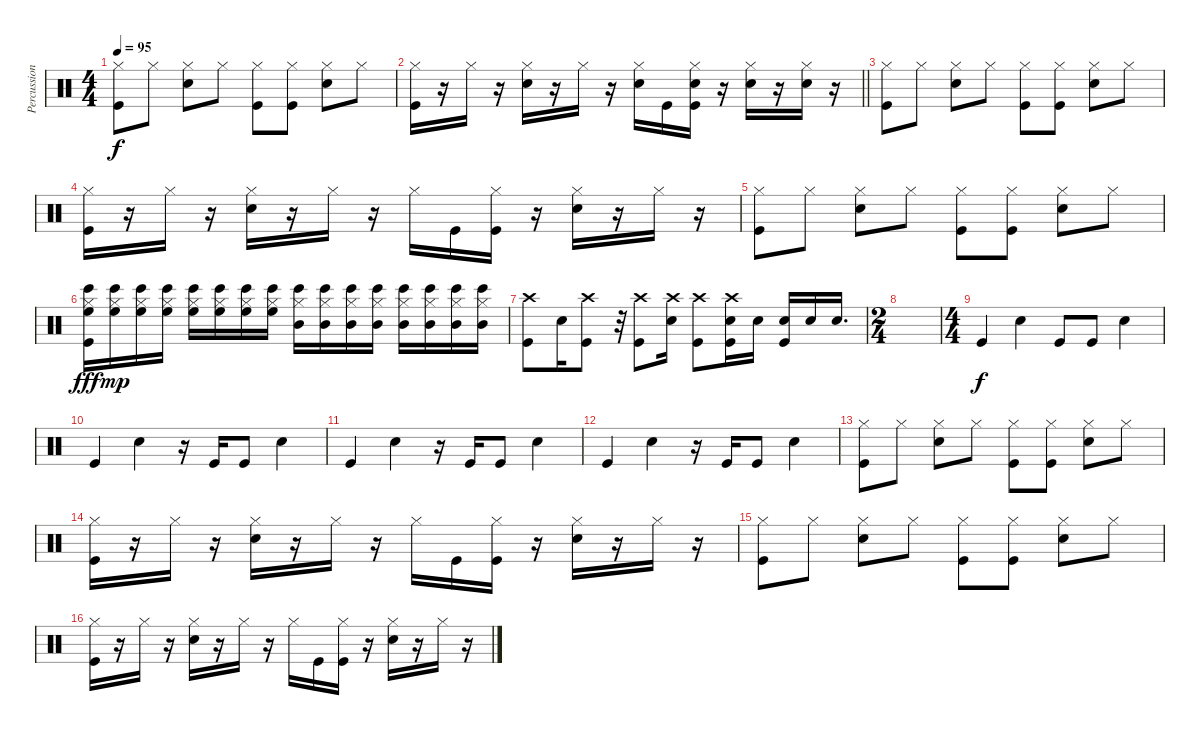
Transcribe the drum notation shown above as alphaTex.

\track ("Percussion" "Percussion") {instrument percussion}
\staff {score}
\articulation defaults
\ts (4 4)
\tempo 95
\clef neutral
\ks c
("Hi-Hat (closed)" "Kick (hit)").8{dy f} "Hi-Hat (closed)".8 ("Hi-Hat (closed)" "Hand Clap (hit)").8 "Hi-Hat (closed)".8 ("Hi-Hat (closed)" "Kick (hit)").8 ("Hi-Hat (closed)" "Kick (hit)").8 ("Hi-Hat (closed)" "Hand Clap (hit)").8 "Hi-Hat (closed)".8 |
\barLineRight lightlight
("Hi-Hat (closed)" "Kick (hit)").16 r.16 "Hi-Hat (closed)".16 r.16 ("Hi-Hat (closed)" "Hand Clap (hit)").16 r.16 "Hi-Hat (closed)".16 r.16 ("Hi-Hat (closed)" "Snare (hit) 2").16 "Kick (hit)".16 ("Hi-Hat (closed)" "Snare (hit) 2" "Kick (hit)").16 r.16 ("Hi-Hat (closed)" "Hand Clap (hit)").16 r.16 ("Hi-Hat (closed)" "Snare (hit) 2").16 r.16 |
("Hi-Hat (closed)" "Kick (hit)").8 "Hi-Hat (closed)".8 ("Hi-Hat (closed)" "Hand Clap (hit)").8 "Hi-Hat (closed)".8 ("Hi-Hat (closed)" "Kick (hit)").8 ("Hi-Hat (closed)" "Kick (hit)").8 ("Hi-Hat (closed)" "Hand Clap (hit)").8 "Hi-Hat (closed)".8 |
("Hi-Hat (closed)" "Kick (hit)").16 r.16 "Hi-Hat (closed)".16 r.16 ("Hi-Hat (closed)" "Hand Clap (hit)").16 r.16 "Hi-Hat (closed)".16 r.16 "Hi-Hat (closed)".16 "Kick (hit)".16 ("Hi-Hat (closed)" "Kick (hit)").16 r.16 ("Hi-Hat (closed)" "Hand Clap (hit)").16 r.16 "Hi-Hat (closed)".16 r.16 |
("Hi-Hat (closed)" "Kick (hit)").8 "Hi-Hat (closed)".8 ("Hi-Hat (closed)" "Hand Clap (hit)").8 "Hi-Hat (closed)".8 ("Hi-Hat (closed)" "Kick (hit)").8 ("Hi-Hat (closed)" "Kick (hit)").8 ("Hi-Hat (closed)" "Hand Clap (hit)").8 "Hi-Hat (closed)".8 |
("High Floor Tom (hit)" "Hi-Hat (closed)" "Bongo High (hit)" "Kick (hit)").16{dy fff} ("High Floor Tom (hit)" "Hi-Hat (closed)" "Bongo High (hit)").16{dy mp} ("High Floor Tom (hit)" "Hi-Hat (closed)" "Bongo High (hit)").16 ("High Floor Tom (hit)" "Hi-Hat (closed)" "Bongo High (hit)").16 ("High Floor Tom (hit)" "Hi-Hat (closed)" "Bongo High (hit)").16 ("High Floor Tom (hit)" "Hi-Hat (closed)" "Bongo High (hit)").16 ("High Floor Tom (hit)" "Hi-Hat (closed)" "Bongo High (hit)").16 ("High Floor Tom (hit)" "Hi-Hat (closed)" "Bongo High (hit)").16 ("Mid Tom (hit)" "Hi-Hat (closed)" "Bongo High (hit)").16 ("Mid Tom (hit)" "Hi-Hat (closed)" "Bongo High (hit)").16 ("Mid Tom (hit)" "Hi-Hat (closed)" "Bongo High (hit)").16 ("Mid Tom (hit)" "Hi-Hat (closed)" "Bongo High (hit)").16 ("Mid Tom (hit)" "Hi-Hat (closed)" "Bongo High (hit)").16 ("Mid Tom (hit)" "Hi-Hat (closed)" "Bongo High (hit)").16 ("Mid Tom (hit)" "Hi-Hat (closed)" "Bongo High (hit)").16 ("Mid Tom (hit)" "Hi-Hat (closed)" "Bongo High (hit)").16 |
("Crash high (hit)" "Kick (hit)").8 "Snare (hit) 2".16 ("Crash high (hit)" "Kick (hit)").8 r.32 ("Crash high (hit)" "Kick (hit)").8 ("Crash high (hit)" "Snare (hit) 2").16 ("Crash high (hit)" "Kick (hit)").8 ("Crash high (hit)" "Snare (hit) 2" "Kick (hit)").16 "Snare (hit) 2".16 ("Snare (hit) 2" "Kick (hit)").16 "Snare (hit) 2".16 "Snare (hit) 2".16{d} |
\ts (2 4)
|
\ts (4 4)
"Kick (hit)".4{dy f} "Hand Clap (hit)".4 "Kick (hit)".8 "Kick (hit)".8 "Hand Clap (hit)".4 |
"Kick (hit)".4 "Snare (hit) 2".4 r.16 "Kick (hit)".16 "Kick (hit)".8 "Snare (hit) 2".4 |
"Kick (hit)".4 "Snare (hit) 2".4 r.16 "Kick (hit)".16 "Kick (hit)".8 "Snare (hit) 2".4 |
"Kick (hit)".4 "Snare (hit) 2".4 r.16 "Kick (hit)".16 "Kick (hit)".8 "Snare (hit) 2".4 |
("Hi-Hat (closed)" "Kick (hit)").8 "Hi-Hat (closed)".8 ("Hi-Hat (closed)" "Hand Clap (hit)").8 "Hi-Hat (closed)".8 ("Hi-Hat (closed)" "Kick (hit)").8 ("Hi-Hat (closed)" "Kick (hit)").8 ("Hi-Hat (closed)" "Hand Clap (hit)").8 "Hi-Hat (closed)".8 |
("Hi-Hat (closed)" "Kick (hit)").16 r.16 "Hi-Hat (closed)".16 r.16 ("Hi-Hat (closed)" "Hand Clap (hit)").16 r.16 "Hi-Hat (closed)".16 r.16 "Hi-Hat (closed)".16 "Kick (hit)".16 ("Hi-Hat (closed)" "Kick (hit)").16 r.16 ("Hi-Hat (closed)" "Hand Clap (hit)").16 r.16 "Hi-Hat (closed)".16 r.16 |
("Hi-Hat (closed)" "Kick (hit)").8 "Hi-Hat (closed)".8 ("Hi-Hat (closed)" "Hand Clap (hit)").8 "Hi-Hat (closed)".8 ("Hi-Hat (closed)" "Kick (hit)").8 ("Hi-Hat (closed)" "Kick (hit)").8 ("Hi-Hat (closed)" "Hand Clap (hit)").8 "Hi-Hat (closed)".8 |
("Hi-Hat (closed)" "Kick (hit)").16 r.16 "Hi-Hat (closed)".16 r.16 ("Hi-Hat (closed)" "Hand Clap (hit)").16 r.16 "Hi-Hat (closed)".16 r.16 "Hi-Hat (closed)".16 "Kick (hit)".16 ("Hi-Hat (closed)" "Kick (hit)").16 r.16 ("Hi-Hat (closed)" "Hand Clap (hit)").16 r.16 "Hi-Hat (closed)".16 r.16
